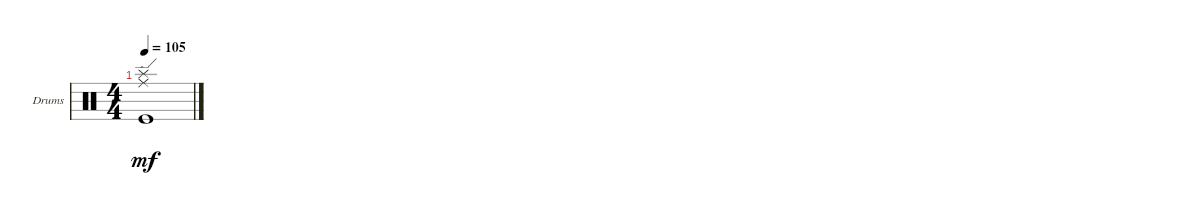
\bracketExtendMode groupsimilarinstruments
\firstSystemTrackNameOrientation horizontal
\otherSystemsTrackNameOrientation horizontal
\track ("Drumkit" "Drums") {instrument percussion}
\staff {score}
\articulation defaults
\ts (4 4)
\tempo 105
\clef neutral
\ks c
("Splash (hit)" "Ride (edge)" "Kick (hit)").1{dy mf}
